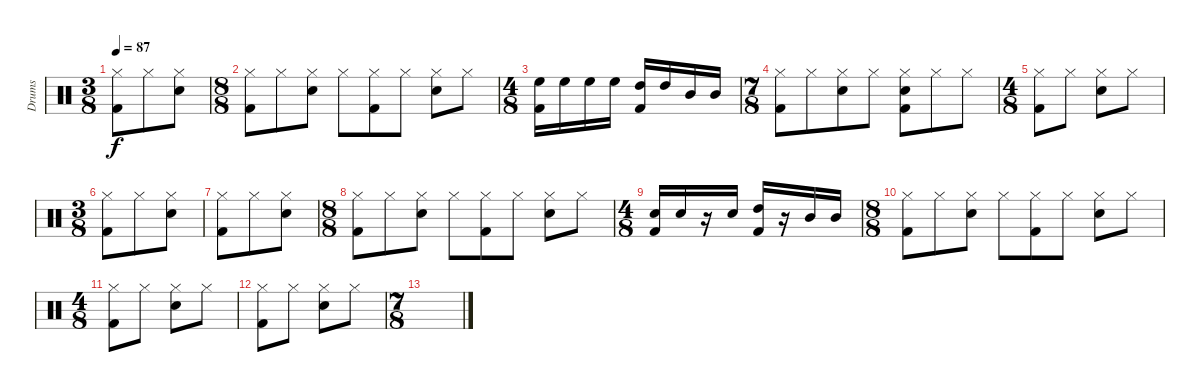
\track ("Drums" "Drums") {instrument percussion}
\staff {score}
\articulation defaults
\ts (3 8)
\tempo 87
\clef neutral
\ks c
("Hi-Hat (closed)" "Kick (hit) 2").8{dy f} "Hi-Hat (closed)".8 ("Hi-Hat (closed)" "Snare (hit) 2").8 |
\ts (8 8)
("Hi-Hat (closed)" "Kick (hit) 2").8 "Hi-Hat (closed)".8 ("Hi-Hat (closed)" "Snare (hit) 2").8 "Hi-Hat (closed)".8 ("Hi-Hat (closed)" "Kick (hit) 2").8 "Hi-Hat (closed)".8 ("Hi-Hat (closed)" "Snare (hit) 2").8 "Hi-Hat (closed)".8 |
\ts (4 8)
("High Floor Tom (hit)" "Kick (hit) 2").16 "High Floor Tom (hit)".16 "High Floor Tom (hit)".16 "High Floor Tom (hit)".16 ("High Tom (hit)" "Kick (hit) 2").16 "High Tom (hit)".16 "Mid Tom (hit)".16 "Mid Tom (hit)".16 |
\ts (7 8)
("Hi-Hat (closed)" "Kick (hit) 2").8 "Hi-Hat (closed)".8 ("Hi-Hat (closed)" "Snare (hit) 2").8 "Hi-Hat (closed)".8 ("Hi-Hat (closed)" "Kick (hit) 2" "Snare (hit) 2").8 "Hi-Hat (closed)".8 "Hi-Hat (closed)".8 |
\ts (4 8)
("Hi-Hat (closed)" "Kick (hit) 2").8 "Hi-Hat (closed)".8 ("Hi-Hat (closed)" "Snare (hit) 2").8 "Hi-Hat (closed)".8 |
\ts (3 8)
("Hi-Hat (closed)" "Kick (hit) 2").8 "Hi-Hat (closed)".8 ("Hi-Hat (closed)" "Snare (hit) 2").8 |
("Hi-Hat (closed)" "Kick (hit) 2").8 "Hi-Hat (closed)".8 ("Hi-Hat (closed)" "Snare (hit) 2").8 |
\ts (8 8)
("Hi-Hat (closed)" "Kick (hit) 2").8 "Hi-Hat (closed)".8 ("Hi-Hat (closed)" "Snare (hit) 2").8 "Hi-Hat (closed)".8 ("Hi-Hat (closed)" "Kick (hit) 2").8 "Hi-Hat (closed)".8 ("Hi-Hat (closed)" "Snare (hit) 2").8 "Hi-Hat (closed)".8 |
\ts (4 8)
("Snare (hit) 2" "Kick (hit) 2").16 "Snare (hit) 2".16 r.16 "Snare (hit) 2".16 ("High Tom (hit)" "Kick (hit) 2").16 r.16 "Mid Tom (hit)".16 "Mid Tom (hit)".16 |
\ts (8 8)
("Hi-Hat (closed)" "Kick (hit) 2").8 "Hi-Hat (closed)".8 ("Hi-Hat (closed)" "Snare (hit) 2").8 "Hi-Hat (closed)".8 ("Hi-Hat (closed)" "Kick (hit) 2").8 "Hi-Hat (closed)".8 ("Hi-Hat (closed)" "Snare (hit) 2").8 "Hi-Hat (closed)".8 |
\ts (4 8)
("Hi-Hat (closed)" "Kick (hit) 2").8 "Hi-Hat (closed)".8 ("Hi-Hat (closed)" "Snare (hit) 2").8 "Hi-Hat (closed)".8 |
("Hi-Hat (closed)" "Kick (hit) 2").8 "Hi-Hat (closed)".8 ("Hi-Hat (closed)" "Snare (hit) 2").8 "Hi-Hat (closed)".8 |
\ts (7 8)
